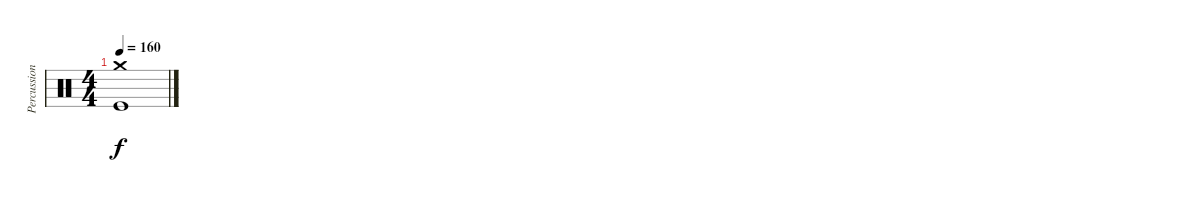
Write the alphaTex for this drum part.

\track ("Percussion" "Percussion") {instrument percussion}
\staff {score}
\articulation defaults
\ts (4 4)
\tempo 160
\clef neutral
\ks c
("Crash medium (hit)" "Kick (hit)").1{dy f}
